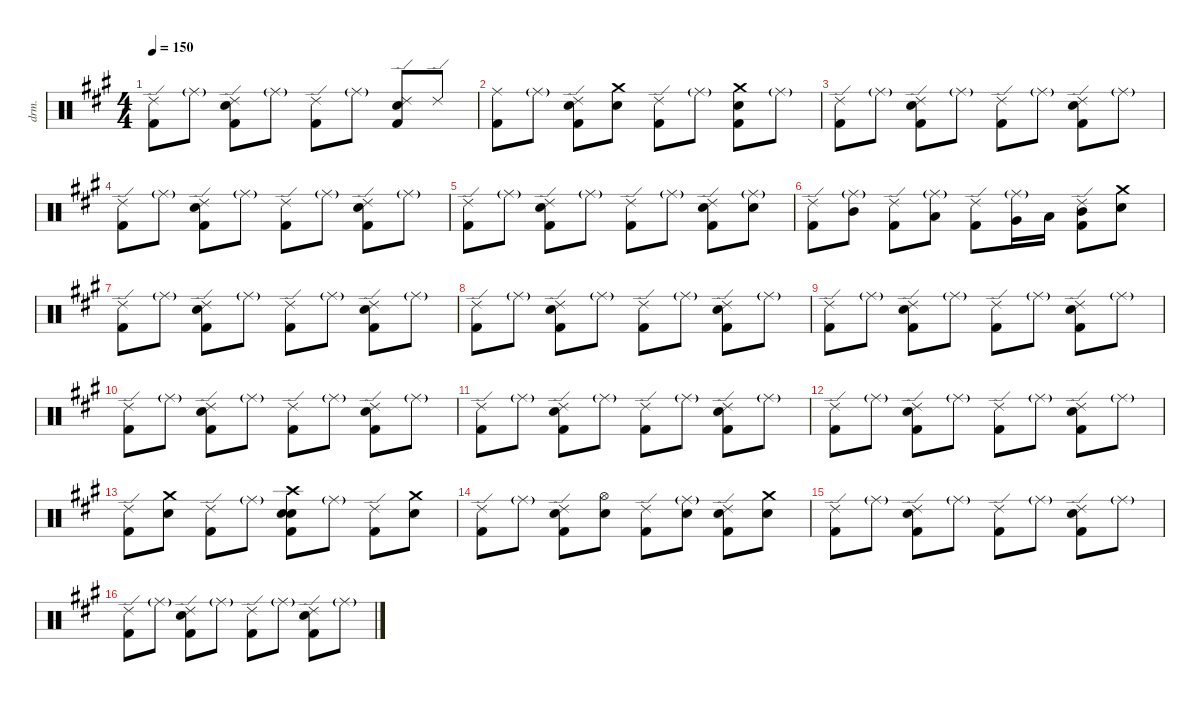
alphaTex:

\defaultSystemsLayout 4
\hideDynamics
\bracketExtendMode nobrackets
\otherSystemsTrackNameOrientation horizontal
\track ("Drums" "drm.") {instrument percussion}
\staff {score}
\articulation defaults
\ts (4 4)
\tempo 150
\clef neutral
\ks a
("Kick (hit) 2"{acc forcenatural} "Ride (edge) 2"{acc forcenatural}).8{dy fff} "Ride (middle)"{g acc forcenatural}.8{dy p} ("Kick (hit) 2"{acc forcenatural} "Snare (hit) 2"{acc forcenatural} "Ride (edge) 2"{acc forcenatural}).8{dy fff} "Ride (middle)"{g acc forcenatural}.8{dy p} ("Kick (hit) 2"{acc forcenatural} "Ride (edge) 2"{acc forcenatural}).8{dy fff} "Ride (middle)"{g acc forcenatural}.8{dy p} ("Kick (hit) 2"{acc forcenatural} "Snare (hit) 2"{acc forcenatural} "Ride (edge) 2"{acc forcenatural}).8{dy fff} "Ride (edge) 2"{acc forcenatural}.8{dy f} |
("Kick (hit) 2"{acc forcenatural} "Ride (middle)"{acc forcenatural}).8{dy fff} "Ride (middle)"{g acc forcenatural}.8{dy p} ("Kick (hit) 2"{acc forcenatural} "Snare (hit) 2"{acc forcenatural} "Ride (edge) 2"{acc forcenatural}).8{dy fff} ("Snare (hit) 2"{acc forcenatural} "Crash medium (hit)"{acc forcenatural}).8 ("Kick (hit) 2"{acc forcenatural} "Ride (edge) 2"{acc forcenatural}).8 "Ride (middle)"{g acc forcenatural}.8{dy p} ("Kick (hit) 2"{acc forcenatural} "Snare (hit) 2"{acc forcenatural} "Crash medium (hit)"{acc forcenatural}).8{dy fff} "Ride (middle)"{g acc forcenatural}.8{dy p} |
("Kick (hit) 2"{acc forcenatural} "Ride (edge) 2"{acc forcenatural}).8{dy fff} "Ride (middle)"{g acc forcenatural}.8{dy p} ("Kick (hit) 2"{acc forcenatural} "Snare (hit) 2"{acc forcenatural} "Ride (edge) 2"{acc forcenatural}).8{dy fff} "Ride (middle)"{g acc forcenatural}.8{dy p} ("Kick (hit) 2"{acc forcenatural} "Ride (edge) 2"{acc forcenatural}).8{dy fff} "Ride (middle)"{g acc forcenatural}.8{dy p} ("Kick (hit) 2"{acc forcenatural} "Snare (hit) 2"{acc forcenatural} "Ride (edge) 2"{acc forcenatural}).8{dy fff} "Ride (middle)"{g acc forcenatural}.8{dy p} |
("Kick (hit) 2"{acc forcenatural} "Ride (edge) 2"{acc forcenatural}).8{dy fff} "Ride (middle)"{g acc forcenatural}.8{dy p} ("Kick (hit) 2"{acc forcenatural} "Snare (hit) 2"{acc forcenatural} "Ride (edge) 2"{acc forcenatural}).8{dy fff} "Ride (middle)"{g acc forcenatural}.8{dy p} ("Kick (hit) 2"{acc forcenatural} "Ride (edge) 2"{acc forcenatural}).8{dy fff} "Ride (middle)"{g acc forcenatural}.8{dy p} ("Kick (hit) 2"{acc forcenatural} "Snare (hit) 2"{acc forcenatural} "Ride (edge) 2"{acc forcenatural}).8{dy fff} "Ride (middle)"{g acc forcenatural}.8{dy p} |
("Kick (hit) 2"{acc forcenatural} "Ride (edge) 2"{acc forcenatural}).8{dy fff} "Ride (middle)"{g acc forcenatural}.8{dy p} ("Kick (hit) 2"{acc forcenatural} "Snare (hit) 2"{acc forcenatural} "Ride (edge) 2"{acc forcenatural}).8{dy fff} "Ride (middle)"{g acc forcenatural}.8{dy p} ("Kick (hit) 2"{acc forcenatural} "Ride (edge) 2"{acc forcenatural}).8{dy fff} "Ride (middle)"{g acc forcenatural}.8{dy p} ("Kick (hit) 2"{acc forcenatural} "Snare (hit) 2"{acc forcenatural} "Ride (edge) 2"{acc forcenatural}).8{dy fff} ("Snare (hit) 2"{acc forcenatural} "Ride (middle)"{g acc forcenatural}).8 |
("Kick (hit) 2"{acc forcenatural} "Ride (edge) 2"{acc forcenatural}).8 ("Mid Tom (hit)"{acc forcenatural} "Ride (middle)"{g acc forcenatural}).8{dy ff} ("Kick (hit) 2"{acc forcenatural} "Ride (edge) 2"{acc forcenatural}).8{dy fff} ("Low Tom (hit)"{acc forcenatural} "Ride (middle)"{g acc forcenatural}).8{dy ff} ("Kick (hit) 2"{acc forcenatural} "Ride (edge) 2"{acc forcenatural}).8{dy fff} ("Very Low Tom (hit)"{acc forcenatural} "Ride (middle)"{g acc forcenatural}).16{dy ff} "Low Tom (hit)"{acc forcenatural}.16 ("Kick (hit) 2"{acc forcenatural} "Mid Tom (hit)"{acc forcenatural} "Ride (edge) 2"{acc forcenatural}).8{dy fff} ("Snare (hit) 2"{acc forcenatural} "Crash medium (hit)"{acc forcenatural}).8 |
("Kick (hit) 2"{acc forcenatural} "Ride (edge) 2"{acc forcenatural}).8 "Ride (middle)"{g acc forcenatural}.8{dy p} ("Kick (hit) 2"{acc forcenatural} "Snare (hit) 2"{acc forcenatural} "Ride (edge) 2"{acc forcenatural}).8{dy fff} "Ride (middle)"{g acc forcenatural}.8{dy p} ("Kick (hit) 2"{acc forcenatural} "Ride (edge) 2"{acc forcenatural}).8{dy fff} "Ride (middle)"{g acc forcenatural}.8{dy p} ("Kick (hit) 2"{acc forcenatural} "Snare (hit) 2"{acc forcenatural} "Ride (edge) 2"{acc forcenatural}).8{dy fff} "Ride (middle)"{g acc forcenatural}.8{dy p} |
("Kick (hit) 2"{acc forcenatural} "Ride (edge) 2"{acc forcenatural}).8{dy fff} "Ride (middle)"{g acc forcenatural}.8{dy p} ("Kick (hit) 2"{acc forcenatural} "Snare (hit) 2"{acc forcenatural} "Ride (edge) 2"{acc forcenatural}).8{dy fff} "Ride (middle)"{g acc forcenatural}.8{dy p} ("Kick (hit) 2"{acc forcenatural} "Ride (edge) 2"{acc forcenatural}).8{dy fff} "Ride (middle)"{g acc forcenatural}.8{dy p} ("Kick (hit) 2"{acc forcenatural} "Snare (hit) 2"{acc forcenatural} "Ride (edge) 2"{acc forcenatural}).8{dy fff} "Ride (middle)"{g acc forcenatural}.8{dy p} |
("Kick (hit) 2"{acc forcenatural} "Ride (edge) 2"{acc forcenatural}).8{dy fff} "Ride (middle)"{g acc forcenatural}.8{dy p} ("Kick (hit) 2"{acc forcenatural} "Snare (hit) 2"{acc forcenatural} "Ride (edge) 2"{acc forcenatural}).8{dy fff} "Ride (middle)"{g acc forcenatural}.8{dy p} ("Kick (hit) 2"{acc forcenatural} "Ride (edge) 2"{acc forcenatural}).8{dy fff} "Ride (middle)"{g acc forcenatural}.8{dy p} ("Kick (hit) 2"{acc forcenatural} "Snare (hit) 2"{acc forcenatural} "Ride (edge) 2"{acc forcenatural}).8{dy fff} "Ride (middle)"{g acc forcenatural}.8{dy p} |
("Kick (hit) 2"{acc forcenatural} "Ride (edge) 2"{acc forcenatural}).8{dy fff} "Ride (middle)"{g acc forcenatural}.8{dy p} ("Kick (hit) 2"{acc forcenatural} "Snare (hit) 2"{acc forcenatural} "Ride (edge) 2"{acc forcenatural}).8{dy fff} "Ride (middle)"{g acc forcenatural}.8{dy p} ("Kick (hit) 2"{acc forcenatural} "Ride (edge) 2"{acc forcenatural}).8{dy fff} "Ride (middle)"{g acc forcenatural}.8{dy p} ("Kick (hit) 2"{acc forcenatural} "Snare (hit) 2"{acc forcenatural} "Ride (edge) 2"{acc forcenatural}).8{dy fff} "Ride (middle)"{g acc forcenatural}.8{dy p} |
("Kick (hit) 2"{acc forcenatural} "Ride (edge) 2"{acc forcenatural}).8{dy fff} "Ride (middle)"{g acc forcenatural}.8{dy p} ("Kick (hit) 2"{acc forcenatural} "Snare (hit) 2"{acc forcenatural} "Ride (edge) 2"{acc forcenatural}).8{dy fff} "Ride (middle)"{g acc forcenatural}.8{dy p} ("Kick (hit) 2"{acc forcenatural} "Ride (edge) 2"{acc forcenatural}).8{dy fff} "Ride (middle)"{g acc forcenatural}.8{dy p} ("Kick (hit) 2"{acc forcenatural} "Snare (hit) 2"{acc forcenatural} "Ride (edge) 2"{acc forcenatural}).8{dy fff} "Ride (middle)"{g acc forcenatural}.8{dy p} |
("Kick (hit) 2"{acc forcenatural} "Ride (edge) 2"{acc forcenatural}).8{dy fff} "Ride (middle)"{g acc forcenatural}.8{dy p} ("Kick (hit) 2"{acc forcenatural} "Snare (hit) 2"{acc forcenatural} "Ride (edge) 2"{acc forcenatural}).8{dy fff} "Ride (middle)"{g acc forcenatural}.8{dy p} ("Kick (hit) 2"{acc forcenatural} "Ride (edge) 2"{acc forcenatural}).8{dy fff} "Ride (middle)"{g acc forcenatural}.8{dy p} ("Kick (hit) 2"{acc forcenatural} "Snare (hit) 2"{acc forcenatural} "Ride (edge) 2"{acc forcenatural}).8{dy fff} "Ride (middle)"{g acc forcenatural}.8{dy p} |
("Kick (hit) 2"{acc forcenatural} "Ride (edge) 2"{acc forcenatural}).8{dy fff} ("Snare (hit) 2"{acc forcenatural} "Crash medium (hit)"{acc forcenatural}).8 ("Kick (hit) 2"{acc forcenatural} "Ride (edge) 2"{acc forcenatural}).8 "Ride (middle)"{g acc forcenatural}.8{dy p} ("Kick (hit) 2"{acc forcenatural} "Snare (hit) 2"{acc forcenatural} "Snare (hit) 2"{acc forcenatural} "Crash high (hit)"{acc forcenatural}).8{dy fff} "Ride (middle)"{g acc forcenatural}.8{dy p} ("Kick (hit) 2"{acc forcenatural} "Ride (edge) 2"{acc forcenatural}).8{dy fff} ("Snare (hit) 2"{acc forcenatural} "Crash medium (hit)"{acc forcenatural}).8 |
("Kick (hit) 2"{acc forcenatural} "Ride (edge) 2"{acc forcenatural}).8 "Ride (middle)"{g acc forcenatural}.8{dy p} ("Kick (hit) 2"{acc forcenatural} "Snare (hit) 2"{acc forcenatural} "Ride (edge) 2"{acc forcenatural}).8{dy fff} ("Snare (hit) 2"{acc forcenatural} "Hi-Hat (open)"{acc forcenatural}).8 ("Kick (hit) 2"{acc forcenatural} "Ride (edge) 2"{acc forcenatural}).8 ("Snare (hit) 2"{acc forcenatural} "Ride (middle)"{g acc forcenatural}).8{dy ff} ("Kick (hit) 2"{acc forcenatural} "Snare (hit) 2"{acc forcenatural} "Ride (edge) 2"{acc forcenatural}).8{dy fff} ("Snare (hit) 2"{acc forcenatural} "Crash medium (hit)"{acc forcenatural}).8 |
("Kick (hit) 2"{acc forcenatural} "Ride (edge) 2"{acc forcenatural}).8 "Ride (middle)"{g acc forcenatural}.8{dy p} ("Kick (hit) 2"{acc forcenatural} "Snare (hit) 2"{acc forcenatural} "Ride (edge) 2"{acc forcenatural}).8{dy fff} "Ride (middle)"{g acc forcenatural}.8{dy p} ("Kick (hit) 2"{acc forcenatural} "Ride (edge) 2"{acc forcenatural}).8{dy fff} "Ride (middle)"{g acc forcenatural}.8{dy p} ("Kick (hit) 2"{acc forcenatural} "Snare (hit) 2"{acc forcenatural} "Ride (edge) 2"{acc forcenatural}).8{dy fff} "Ride (middle)"{g acc forcenatural}.8{dy p} |
("Kick (hit) 2"{acc forcenatural} "Ride (edge) 2"{acc forcenatural}).8{dy fff} "Ride (middle)"{g acc forcenatural}.8{dy p} ("Kick (hit) 2"{acc forcenatural} "Snare (hit) 2"{acc forcenatural} "Ride (edge) 2"{acc forcenatural}).8{dy fff} "Ride (middle)"{g acc forcenatural}.8{dy p} ("Kick (hit) 2"{acc forcenatural} "Ride (edge) 2"{acc forcenatural}).8{dy fff} "Ride (middle)"{g acc forcenatural}.8{dy p} ("Kick (hit) 2"{acc forcenatural} "Snare (hit) 2"{acc forcenatural} "Ride (edge) 2"{acc forcenatural}).8{dy fff} "Ride (middle)"{g acc forcenatural}.8{dy p}
